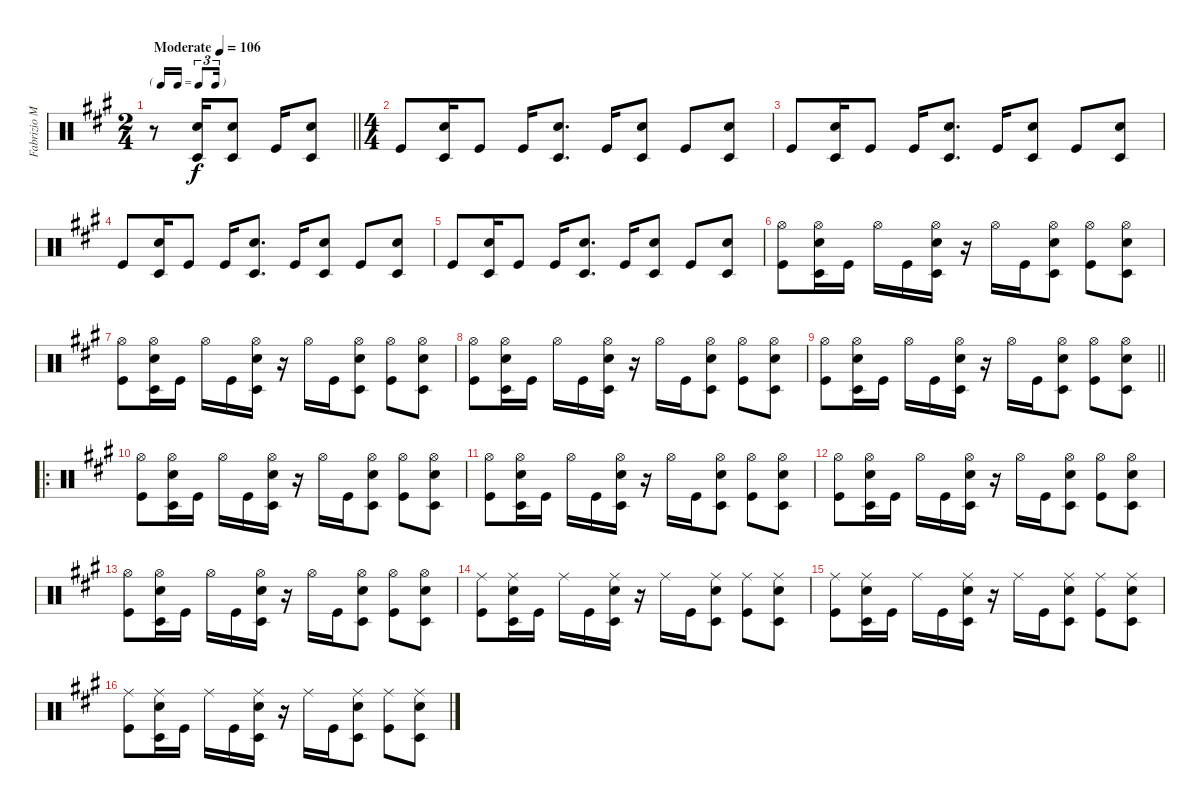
\track ("Fabrizio Moretti" "Fabrizio M") {instrument percussion}
\staff {score}
\articulation defaults
\ts (2 4)
\tf triplet16th
\tempo (106 "Moderate")
\clef neutral
\barLineRight lightlight
\ks a
r.8{dy f} ("Electric Snare (hit)" "Timbale low (hit)").16 ("Electric Snare (hit)" "Timbale low (hit)").8 "Kick (hit)".16 ("Timbale low (hit)" "Electric Snare (hit)").8 |
\ts (4 4)
"Kick (hit)".8 ("Electric Snare (hit)" "Timbale low (hit)").16 "Kick (hit)".8 "Kick (hit)".16 ("Electric Snare (hit)" "Timbale low (hit)").8{d} "Kick (hit)".16 ("Electric Snare (hit)" "Timbale low (hit)").8 "Kick (hit)".8 ("Electric Snare (hit)" "Timbale low (hit)").8 |
"Kick (hit)".8 ("Electric Snare (hit)" "Timbale low (hit)").16 "Kick (hit)".8 "Kick (hit)".16 ("Electric Snare (hit)" "Timbale low (hit)").8{d} "Kick (hit)".16 ("Electric Snare (hit)" "Timbale low (hit)").8 "Kick (hit)".8 ("Electric Snare (hit)" "Timbale low (hit)").8 |
"Kick (hit)".8 ("Electric Snare (hit)" "Timbale low (hit)").16 "Kick (hit)".8 "Kick (hit)".16 ("Electric Snare (hit)" "Timbale low (hit)").8{d} "Kick (hit)".16 ("Electric Snare (hit)" "Timbale low (hit)").8 "Kick (hit)".8 ("Electric Snare (hit)" "Timbale low (hit)").8 |
"Kick (hit)".8 ("Electric Snare (hit)" "Timbale low (hit)").16 "Kick (hit)".8 "Kick (hit)".16 ("Electric Snare (hit)" "Timbale low (hit)").8{d} "Kick (hit)".16 ("Electric Snare (hit)" "Timbale low (hit)").8 "Kick (hit)".8 ("Electric Snare (hit)" "Timbale low (hit)").8 |
("Hi-Hat (open)" "Kick (hit)").8 ("Hi-Hat (open)" "Electric Snare (hit)" "Timbale low (hit)").16 "Kick (hit)".16 "Hi-Hat (open)".16 "Kick (hit)".16 ("Hi-Hat (open)" "Timbale low (hit)" "Electric Snare (hit)").16 r.16 "Hi-Hat (open)".16 "Kick (hit)".16 ("Hi-Hat (open)" "Electric Snare (hit)" "Timbale low (hit)").8 ("Hi-Hat (open)" "Kick (hit)").8 ("Hi-Hat (open)" "Electric Snare (hit)" "Timbale low (hit)").8 |
("Hi-Hat (open)" "Kick (hit)").8 ("Hi-Hat (open)" "Electric Snare (hit)" "Timbale low (hit)").16 "Kick (hit)".16 "Hi-Hat (open)".16 "Kick (hit)".16 ("Hi-Hat (open)" "Timbale low (hit)" "Electric Snare (hit)").16 r.16 "Hi-Hat (open)".16 "Kick (hit)".16 ("Hi-Hat (open)" "Electric Snare (hit)" "Timbale low (hit)").8 ("Hi-Hat (open)" "Kick (hit)").8 ("Hi-Hat (open)" "Electric Snare (hit)" "Timbale low (hit)").8 |
("Hi-Hat (open)" "Kick (hit)").8 ("Hi-Hat (open)" "Electric Snare (hit)" "Timbale low (hit)").16 "Kick (hit)".16 "Hi-Hat (open)".16 "Kick (hit)".16 ("Hi-Hat (open)" "Timbale low (hit)" "Electric Snare (hit)").16 r.16 "Hi-Hat (open)".16 "Kick (hit)".16 ("Hi-Hat (open)" "Electric Snare (hit)" "Timbale low (hit)").8 ("Hi-Hat (open)" "Kick (hit)").8 ("Hi-Hat (open)" "Electric Snare (hit)" "Timbale low (hit)").8 |
\barLineRight lightlight
("Hi-Hat (open)" "Kick (hit)").8 ("Hi-Hat (open)" "Electric Snare (hit)" "Timbale low (hit)").16 "Kick (hit)".16 "Hi-Hat (open)".16 "Kick (hit)".16 ("Hi-Hat (open)" "Timbale low (hit)" "Electric Snare (hit)").16 r.16 "Hi-Hat (open)".16 "Kick (hit)".16 ("Hi-Hat (open)" "Electric Snare (hit)" "Timbale low (hit)").8 ("Hi-Hat (open)" "Kick (hit)").8 ("Hi-Hat (open)" "Electric Snare (hit)" "Timbale low (hit)").8 |
\ro
("Hi-Hat (open)" "Kick (hit)").8 ("Hi-Hat (open)" "Electric Snare (hit)" "Timbale low (hit)").16 "Kick (hit)".16 "Hi-Hat (open)".16 "Kick (hit)".16 ("Hi-Hat (open)" "Timbale low (hit)" "Electric Snare (hit)").16 r.16 "Hi-Hat (open)".16 "Kick (hit)".16 ("Hi-Hat (open)" "Electric Snare (hit)" "Timbale low (hit)").8 ("Hi-Hat (open)" "Kick (hit)").8 ("Hi-Hat (open)" "Electric Snare (hit)" "Timbale low (hit)").8 |
("Hi-Hat (open)" "Kick (hit)").8 ("Hi-Hat (open)" "Electric Snare (hit)" "Timbale low (hit)").16 "Kick (hit)".16 "Hi-Hat (open)".16 "Kick (hit)".16 ("Hi-Hat (open)" "Timbale low (hit)" "Electric Snare (hit)").16 r.16 "Hi-Hat (open)".16 "Kick (hit)".16 ("Hi-Hat (open)" "Electric Snare (hit)" "Timbale low (hit)").8 ("Hi-Hat (open)" "Kick (hit)").8 ("Hi-Hat (open)" "Electric Snare (hit)" "Timbale low (hit)").8 |
("Hi-Hat (open)" "Kick (hit)").8 ("Hi-Hat (open)" "Electric Snare (hit)" "Timbale low (hit)").16 "Kick (hit)".16 "Hi-Hat (open)".16 "Kick (hit)".16 ("Hi-Hat (open)" "Timbale low (hit)" "Electric Snare (hit)").16 r.16 "Hi-Hat (open)".16 "Kick (hit)".16 ("Hi-Hat (open)" "Electric Snare (hit)" "Timbale low (hit)").8 ("Hi-Hat (open)" "Kick (hit)").8 ("Hi-Hat (open)" "Electric Snare (hit)" "Timbale low (hit)").8 |
("Hi-Hat (open)" "Kick (hit)").8 ("Hi-Hat (open)" "Electric Snare (hit)" "Timbale low (hit)").16 "Kick (hit)".16 "Hi-Hat (open)".16 "Kick (hit)".16 ("Hi-Hat (open)" "Timbale low (hit)" "Electric Snare (hit)").16 r.16 "Hi-Hat (open)".16 "Kick (hit)".16 ("Hi-Hat (open)" "Electric Snare (hit)" "Timbale low (hit)").8 ("Hi-Hat (open)" "Kick (hit)").8 ("Hi-Hat (open)" "Electric Snare (hit)" "Timbale low (hit)").8 |
("Ride (middle)" "Kick (hit)").8 ("Ride (middle)" "Electric Snare (hit)" "Timbale low (hit)").16 "Kick (hit)".16 "Ride (middle)".16 "Kick (hit)".16 ("Ride (middle)" "Timbale low (hit)" "Electric Snare (hit)").16 r.16 "Ride (middle)".16 "Kick (hit)".16 ("Ride (middle)" "Electric Snare (hit)" "Timbale low (hit)").8 ("Ride (middle)" "Kick (hit)").8 ("Ride (middle)" "Electric Snare (hit)" "Timbale low (hit)").8 |
("Ride (middle)" "Kick (hit)").8 ("Ride (middle)" "Electric Snare (hit)" "Timbale low (hit)").16 "Kick (hit)".16 "Ride (middle)".16 "Kick (hit)".16 ("Ride (middle)" "Timbale low (hit)" "Electric Snare (hit)").16 r.16 "Ride (middle)".16 "Kick (hit)".16 ("Ride (middle)" "Electric Snare (hit)" "Timbale low (hit)").8 ("Ride (middle)" "Kick (hit)").8 ("Ride (middle)" "Electric Snare (hit)" "Timbale low (hit)").8 |
("Ride (middle)" "Kick (hit)").8 ("Ride (middle)" "Electric Snare (hit)" "Timbale low (hit)").16 "Kick (hit)".16 "Ride (middle)".16 "Kick (hit)".16 ("Ride (middle)" "Timbale low (hit)" "Electric Snare (hit)").16 r.16 "Ride (middle)".16 "Kick (hit)".16 ("Ride (middle)" "Electric Snare (hit)" "Timbale low (hit)").8 ("Ride (middle)" "Kick (hit)").8 ("Ride (middle)" "Electric Snare (hit)" "Timbale low (hit)").8
